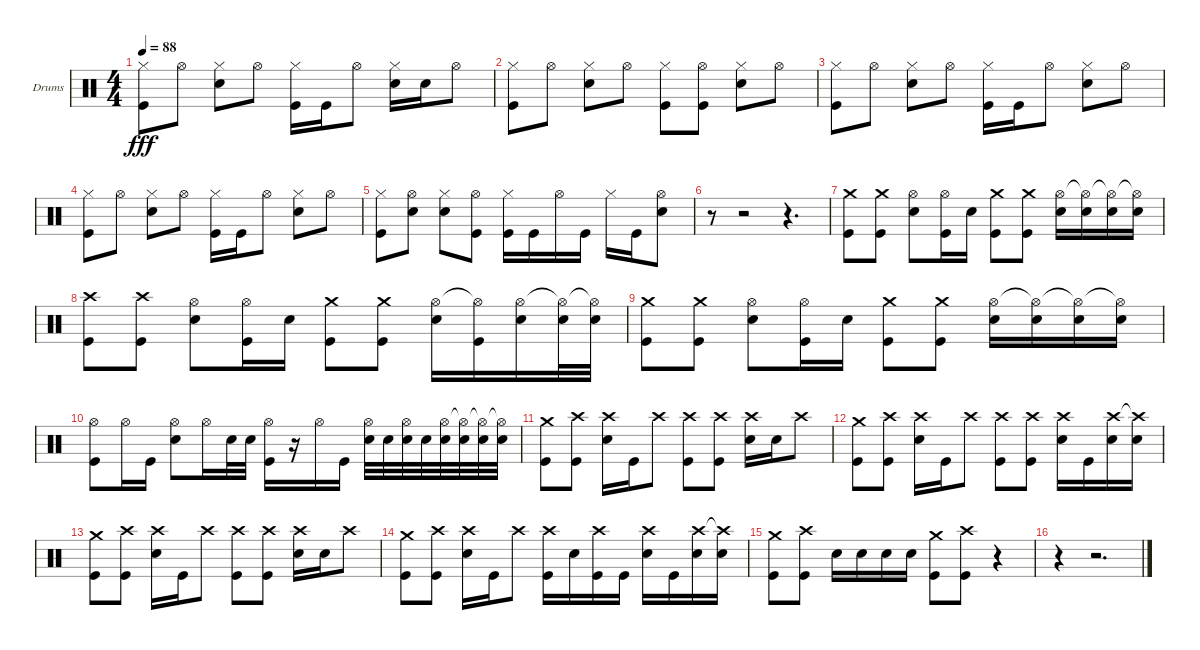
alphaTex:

\bracketExtendMode groupsimilarinstruments
\firstSystemTrackNameOrientation horizontal
\otherSystemsTrackNameOrientation horizontal
\track ("Drumkit" "Drums") {instrument percussion}
\staff {score}
\articulation defaults
\ts (4 4)
\tempo 88
\clef neutral
\scale
0.333333
\ks c
("Hi-Hat (closed)" "Kick (hit)").8{dy fff} "Hi-Hat (open)".8 ("Hi-Hat (closed)" "Snare (hit) 2").8 "Hi-Hat (open)".8 ("Hi-Hat (closed)" "Kick (hit)").16 "Kick (hit)".16 "Hi-Hat (open)".8 ("Hi-Hat (closed)" "Snare (hit) 2").16 "Snare (hit) 2".16 "Hi-Hat (open)".8 |
\scale
0.333333 ("Hi-Hat (closed)" "Kick (hit)").8 "Hi-Hat (open)".8 ("Hi-Hat (closed)" "Snare (hit) 2").8 "Hi-Hat (open)".8 ("Hi-Hat (closed)" "Kick (hit)").8 ("Hi-Hat (open)" "Kick (hit)").8 ("Hi-Hat (closed)" "Snare (hit) 2").8 "Hi-Hat (open)".8 |
\scale
0.333333 ("Hi-Hat (closed)" "Kick (hit)").8 "Hi-Hat (open)".8 ("Hi-Hat (closed)" "Snare (hit) 2").8 "Hi-Hat (open)".8 ("Hi-Hat (closed)" "Kick (hit)").16 "Kick (hit)".16 "Hi-Hat (open)".8 ("Hi-Hat (closed)" "Snare (hit) 2").8 "Hi-Hat (open)".8 |
\scale
0.333333 ("Hi-Hat (closed)" "Kick (hit)").8 "Hi-Hat (open)".8 ("Hi-Hat (closed)" "Snare (hit) 2").8 "Hi-Hat (open)".8 ("Hi-Hat (closed)" "Kick (hit)").16 "Kick (hit)".16 "Hi-Hat (open)".8 ("Hi-Hat (closed)" "Snare (hit) 2").8 "Hi-Hat (open)".8 |
\scale
0.333333 ("Hi-Hat (closed)" "Kick (hit)").8 ("Hi-Hat (open)" "Snare (hit) 2").8 ("Hi-Hat (closed)" "Snare (hit) 2").8 ("Hi-Hat (open)" "Kick (hit)").8 ("Hi-Hat (closed)" "Kick (hit)").16 "Kick (hit)".16 "Hi-Hat (open)".16 "Kick (hit)".16 "Hi-Hat (closed)".16 "Kick (hit)".16 ("Hi-Hat (open)" "Snare (hit) 2").8 |
\scale
0.333333 r.8 r.2 r.4{d} |
\scale
0.333333 ("Crash medium (hit)" "Kick (hit)").8 ("Crash medium (hit)" "Kick (hit)").8 ("Hi-Hat (open)" "Snare (hit) 2").8 ("Hi-Hat (open)" "Kick (hit)").16 "Snare (hit) 2".16 ("Crash medium (hit)" "Kick (hit)").8 ("Crash medium (hit)" "Kick (hit)").8 ("Hi-Hat (open)" "Snare (hit) 2").16 ("Hi-Hat (open)"{t} "Snare (hit) 2").16 ("Hi-Hat (open)"{t} "Snare (hit) 2").16 ("Hi-Hat (open)"{t} "Snare (hit) 2").16 |
\scale
0.333333 ("Crash high (hit)" "Kick (hit)").8 ("Crash high (hit)" "Kick (hit)").8 ("Hi-Hat (open)" "Snare (hit) 2").8 ("Hi-Hat (open)" "Kick (hit)").16 "Snare (hit) 2".16 ("Crash medium (hit)" "Kick (hit)").8 ("Crash medium (hit)" "Kick (hit)").8 ("Hi-Hat (open)" "Snare (hit) 2").16 ("Hi-Hat (open)"{t} "Kick (hit)").16 ("Hi-Hat (open)" "Snare (hit) 2").16 ("Hi-Hat (open)"{t} "Snare (hit) 2").32 ("Hi-Hat (open)"{t} "Snare (hit) 2").32 |
\scale
0.333333 ("Crash medium (hit)" "Kick (hit)").8 ("Crash medium (hit)" "Kick (hit)").8 ("Hi-Hat (open)" "Snare (hit) 2").8 ("Hi-Hat (open)" "Kick (hit)").16 "Snare (hit) 2".16 ("Crash medium (hit)" "Kick (hit)").8 ("Crash medium (hit)" "Kick (hit)").8 ("Hi-Hat (open)" "Snare (hit) 2").16 ("Hi-Hat (open)"{t} "Snare (hit) 2").16 ("Hi-Hat (open)"{t} "Snare (hit) 2").16 ("Hi-Hat (open)"{t} "Snare (hit) 2").16 |
\scale
0.333333 ("Hi-Hat (open)" "Kick (hit)").8 "Hi-Hat (open)".16 "Kick (hit)".16 ("Hi-Hat (open)" "Snare (hit) 2").8 "Hi-Hat (open)".16 "Snare (hit) 2".32 "Snare (hit) 2".32 ("Hi-Hat (open)" "Kick (hit)").16 r.16 "Hi-Hat (open)".16 "Kick (hit)".16 ("Hi-Hat (open)" "Snare (hit) 2").32 "Snare (hit) 2".32 ("Hi-Hat (open)" "Snare (hit) 2").32 "Snare (hit) 2".32 ("Hi-Hat (open)" "Snare (hit) 2").32 ("Hi-Hat (open)"{t} "Snare (hit) 2").32 ("Hi-Hat (open)"{t} "Snare (hit) 2").32 ("Hi-Hat (open)"{t} "Snare (hit) 2").32 |
\scale
0.333333 ("Crash medium (hit)" "Kick (hit)").8 ("Crash high (hit)" "Kick (hit)").8 ("Crash high (hit)" "Snare (hit) 2").16 "Kick (hit)".16 "Crash high (hit)".8 ("Crash high (hit)" "Kick (hit)").8 ("Crash high (hit)" "Kick (hit)").8 ("Crash high (hit)" "Snare (hit) 2").16 "Snare (hit) 2".16 "Crash high (hit)".8 |
\scale
0.333333 ("Crash medium (hit)" "Kick (hit)").8 ("Crash high (hit)" "Kick (hit)").8 ("Crash high (hit)" "Snare (hit) 2").16 "Kick (hit)".16 "Crash high (hit)".8 ("Crash high (hit)" "Kick (hit)").8 ("Crash high (hit)" "Kick (hit)").8 ("Crash high (hit)" "Snare (hit) 2").16 "Kick (hit)".16 ("Crash high (hit)" "Snare (hit) 2").16 ("Crash high (hit)"{t} "Snare (hit) 2").16 |
\scale
0.333333 ("Crash medium (hit)" "Kick (hit)").8 ("Crash high (hit)" "Kick (hit)").8 ("Crash high (hit)" "Snare (hit) 2").16 "Kick (hit)".16 "Crash high (hit)".8 ("Crash high (hit)" "Kick (hit)").8 ("Crash high (hit)" "Kick (hit)").8 ("Crash high (hit)" "Snare (hit) 2").16 "Snare (hit) 2".16 "Crash high (hit)".8 |
\scale
0.333333 ("Crash medium (hit)" "Kick (hit)").8 ("Crash high (hit)" "Kick (hit)").8 ("Crash high (hit)" "Snare (hit) 2").16 "Kick (hit)".16 "Crash high (hit)".8 ("Crash high (hit)" "Kick (hit)").16 "Snare (hit) 2".16 ("Crash high (hit)" "Kick (hit)").16 "Kick (hit)".16 ("Crash high (hit)" "Snare (hit) 2").16 "Kick (hit)".16 ("Crash high (hit)" "Snare (hit) 2").16 ("Crash high (hit)"{t} "Snare (hit) 2").16 |
\scale
0.333333 ("Crash medium (hit)" "Kick (hit)").8 ("Crash high (hit)" "Kick (hit)").8 "Snare (hit) 2".16 "Snare (hit) 2".16 "Snare (hit) 2".16 "Snare (hit) 2".16 ("Crash medium (hit)" "Kick (hit)").8 ("Crash high (hit)" "Kick (hit)").8 r.4 |
\scale
0.333333 r.4 r.2{d}
